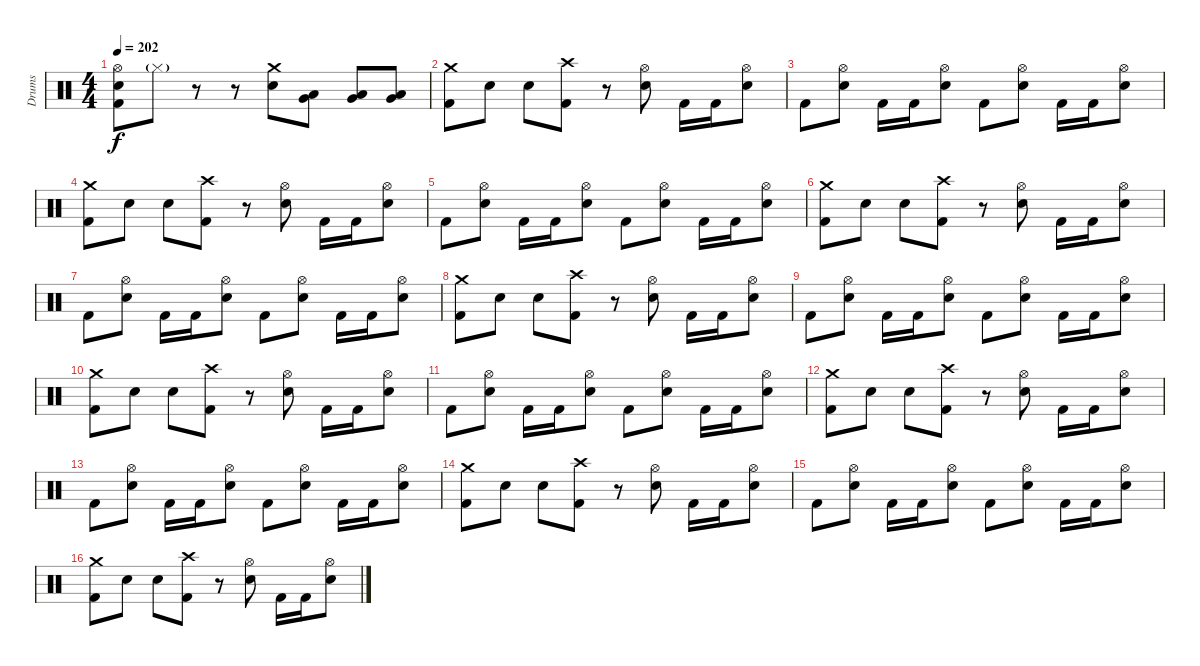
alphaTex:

\track ("Drums" "Drums") {instrument percussion}
\staff {score}
\articulation defaults
\ts (4 4)
\tempo 202
\clef neutral
\ks c
("Hi-Hat (open)" "Electric Snare (hit)" "Kick (hit) 2").8{dy f} "Hi-Hat (closed)"{g}.8 r.8 r.8 ("Crash medium (hit)" "Electric Snare (hit)").8 ("Very Low Tom (hit)" "Low Floor Tom (hit)").8 ("Very Low Tom (hit)" "Low Floor Tom (hit)").8 ("Very Low Tom (hit)" "Low Floor Tom (hit)").8 |
("Crash medium (hit)" "Kick (hit) 2").8 "Electric Snare (hit)".8 "Electric Snare (hit)".8 ("Crash high (hit)" "Kick (hit) 2").8 r.8 ("Hi-Hat (open)" "Electric Snare (hit)").8 "Kick (hit) 2".16 "Kick (hit) 2".16 ("Hi-Hat (open)" "Electric Snare (hit)").8 |
"Kick (hit) 2".8 ("Hi-Hat (open)" "Electric Snare (hit)").8 "Kick (hit) 2".16 "Kick (hit) 2".16 ("Hi-Hat (open)" "Electric Snare (hit)").8 "Kick (hit) 2".8 ("Hi-Hat (open)" "Electric Snare (hit)").8 "Kick (hit) 2".16 "Kick (hit) 2".16 ("Hi-Hat (open)" "Electric Snare (hit)").8 |
("Crash medium (hit)" "Kick (hit) 2").8 "Electric Snare (hit)".8 "Electric Snare (hit)".8 ("Crash high (hit)" "Kick (hit) 2").8 r.8 ("Hi-Hat (open)" "Electric Snare (hit)").8 "Kick (hit) 2".16 "Kick (hit) 2".16 ("Hi-Hat (open)" "Electric Snare (hit)").8 |
"Kick (hit) 2".8 ("Hi-Hat (open)" "Electric Snare (hit)").8 "Kick (hit) 2".16 "Kick (hit) 2".16 ("Hi-Hat (open)" "Electric Snare (hit)").8 "Kick (hit) 2".8 ("Hi-Hat (open)" "Electric Snare (hit)").8 "Kick (hit) 2".16 "Kick (hit) 2".16 ("Hi-Hat (open)" "Electric Snare (hit)").8 |
("Crash medium (hit)" "Kick (hit) 2").8 "Electric Snare (hit)".8 "Electric Snare (hit)".8 ("Crash high (hit)" "Kick (hit) 2").8 r.8 ("Hi-Hat (open)" "Electric Snare (hit)").8 "Kick (hit) 2".16 "Kick (hit) 2".16 ("Hi-Hat (open)" "Electric Snare (hit)").8 |
"Kick (hit) 2".8 ("Hi-Hat (open)" "Electric Snare (hit)").8 "Kick (hit) 2".16 "Kick (hit) 2".16 ("Hi-Hat (open)" "Electric Snare (hit)").8 "Kick (hit) 2".8 ("Hi-Hat (open)" "Electric Snare (hit)").8 "Kick (hit) 2".16 "Kick (hit) 2".16 ("Hi-Hat (open)" "Electric Snare (hit)").8 |
("Crash medium (hit)" "Kick (hit) 2").8 "Electric Snare (hit)".8 "Electric Snare (hit)".8 ("Crash high (hit)" "Kick (hit) 2").8 r.8 ("Hi-Hat (open)" "Electric Snare (hit)").8 "Kick (hit) 2".16 "Kick (hit) 2".16 ("Hi-Hat (open)" "Electric Snare (hit)").8 |
"Kick (hit) 2".8 ("Hi-Hat (open)" "Electric Snare (hit)").8 "Kick (hit) 2".16 "Kick (hit) 2".16 ("Hi-Hat (open)" "Electric Snare (hit)").8 "Kick (hit) 2".8 ("Hi-Hat (open)" "Electric Snare (hit)").8 "Kick (hit) 2".16 "Kick (hit) 2".16 ("Hi-Hat (open)" "Electric Snare (hit)").8 |
("Crash medium (hit)" "Kick (hit) 2").8 "Electric Snare (hit)".8 "Electric Snare (hit)".8 ("Crash high (hit)" "Kick (hit) 2").8 r.8 ("Hi-Hat (open)" "Electric Snare (hit)").8 "Kick (hit) 2".16 "Kick (hit) 2".16 ("Hi-Hat (open)" "Electric Snare (hit)").8 |
"Kick (hit) 2".8 ("Hi-Hat (open)" "Electric Snare (hit)").8 "Kick (hit) 2".16 "Kick (hit) 2".16 ("Hi-Hat (open)" "Electric Snare (hit)").8 "Kick (hit) 2".8 ("Hi-Hat (open)" "Electric Snare (hit)").8 "Kick (hit) 2".16 "Kick (hit) 2".16 ("Hi-Hat (open)" "Electric Snare (hit)").8 |
("Crash medium (hit)" "Kick (hit) 2").8 "Electric Snare (hit)".8 "Electric Snare (hit)".8 ("Crash high (hit)" "Kick (hit) 2").8 r.8 ("Hi-Hat (open)" "Electric Snare (hit)").8 "Kick (hit) 2".16 "Kick (hit) 2".16 ("Hi-Hat (open)" "Electric Snare (hit)").8 |
"Kick (hit) 2".8 ("Hi-Hat (open)" "Electric Snare (hit)").8 "Kick (hit) 2".16 "Kick (hit) 2".16 ("Hi-Hat (open)" "Electric Snare (hit)").8 "Kick (hit) 2".8 ("Hi-Hat (open)" "Electric Snare (hit)").8 "Kick (hit) 2".16 "Kick (hit) 2".16 ("Hi-Hat (open)" "Electric Snare (hit)").8 |
("Crash medium (hit)" "Kick (hit) 2").8 "Electric Snare (hit)".8 "Electric Snare (hit)".8 ("Crash high (hit)" "Kick (hit) 2").8 r.8 ("Hi-Hat (open)" "Electric Snare (hit)").8 "Kick (hit) 2".16 "Kick (hit) 2".16 ("Hi-Hat (open)" "Electric Snare (hit)").8 |
"Kick (hit) 2".8 ("Hi-Hat (open)" "Electric Snare (hit)").8 "Kick (hit) 2".16 "Kick (hit) 2".16 ("Hi-Hat (open)" "Electric Snare (hit)").8 "Kick (hit) 2".8 ("Hi-Hat (open)" "Electric Snare (hit)").8 "Kick (hit) 2".16 "Kick (hit) 2".16 ("Hi-Hat (open)" "Electric Snare (hit)").8 |
("Crash medium (hit)" "Kick (hit) 2").8 "Electric Snare (hit)".8 "Electric Snare (hit)".8 ("Crash high (hit)" "Kick (hit) 2").8 r.8 ("Hi-Hat (open)" "Electric Snare (hit)").8 "Kick (hit) 2".16 "Kick (hit) 2".16 ("Hi-Hat (open)" "Electric Snare (hit)").8
